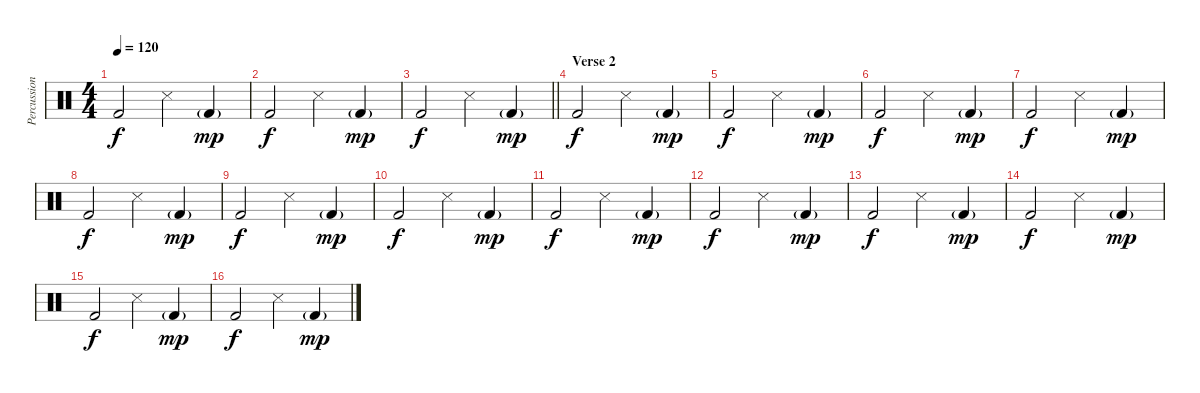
\track ("Percussion" "Percussion") {instrument percussion}
\staff {score}
\articulation defaults
\ts (4 4)
\tempo 120
\clef neutral
\ks c "Kick (hit) 2".2{dy f} "Snare (side stick) 3".4 "Kick (hit) 2"{g}.4{dy mp}
|
"Kick (hit) 2".2{dy f} "Snare (side stick) 3".4 "Kick (hit) 2"{g}.4{dy mp} |
\barLineRight lightlight "Kick (hit) 2".2{dy f} "Snare (side stick) 3".4 "Kick (hit) 2"{g}.4{dy mp}
|
\section ("" "Verse 2")
"Kick (hit) 2".2{dy f} "Snare (side stick) 3".4 "Kick (hit) 2"{g}.4{dy mp} |
"Kick (hit) 2".2{dy f} "Snare (side stick) 3".4 "Kick (hit) 2"{g}.4{dy mp} |
"Kick (hit) 2".2{dy f} "Snare (side stick) 3".4 "Kick (hit) 2"{g}.4{dy mp} |
"Kick (hit) 2".2{dy f} "Snare (side stick) 3".4 "Kick (hit) 2"{g}.4{dy mp} |
"Kick (hit) 2".2{dy f} "Snare (side stick) 3".4 "Kick (hit) 2"{g}.4{dy mp} |
"Kick (hit) 2".2{dy f} "Snare (side stick) 3".4 "Kick (hit) 2"{g}.4{dy mp} |
"Kick (hit) 2".2{dy f} "Snare (side stick) 3".4 "Kick (hit) 2"{g}.4{dy mp} |
"Kick (hit) 2".2{dy f} "Snare (side stick) 3".4 "Kick (hit) 2"{g}.4{dy mp} |
"Kick (hit) 2".2{dy f} "Snare (side stick) 3".4 "Kick (hit) 2"{g}.4{dy mp} |
"Kick (hit) 2".2{dy f} "Snare (side stick) 3".4 "Kick (hit) 2"{g}.4{dy mp} |
"Kick (hit) 2".2{dy f} "Snare (side stick) 3".4 "Kick (hit) 2"{g}.4{dy mp} |
"Kick (hit) 2".2{dy f} "Snare (side stick) 3".4 "Kick (hit) 2"{g}.4{dy mp} |
"Kick (hit) 2".2{dy f} "Snare (side stick) 3".4 "Kick (hit) 2"{g}.4{dy mp}
